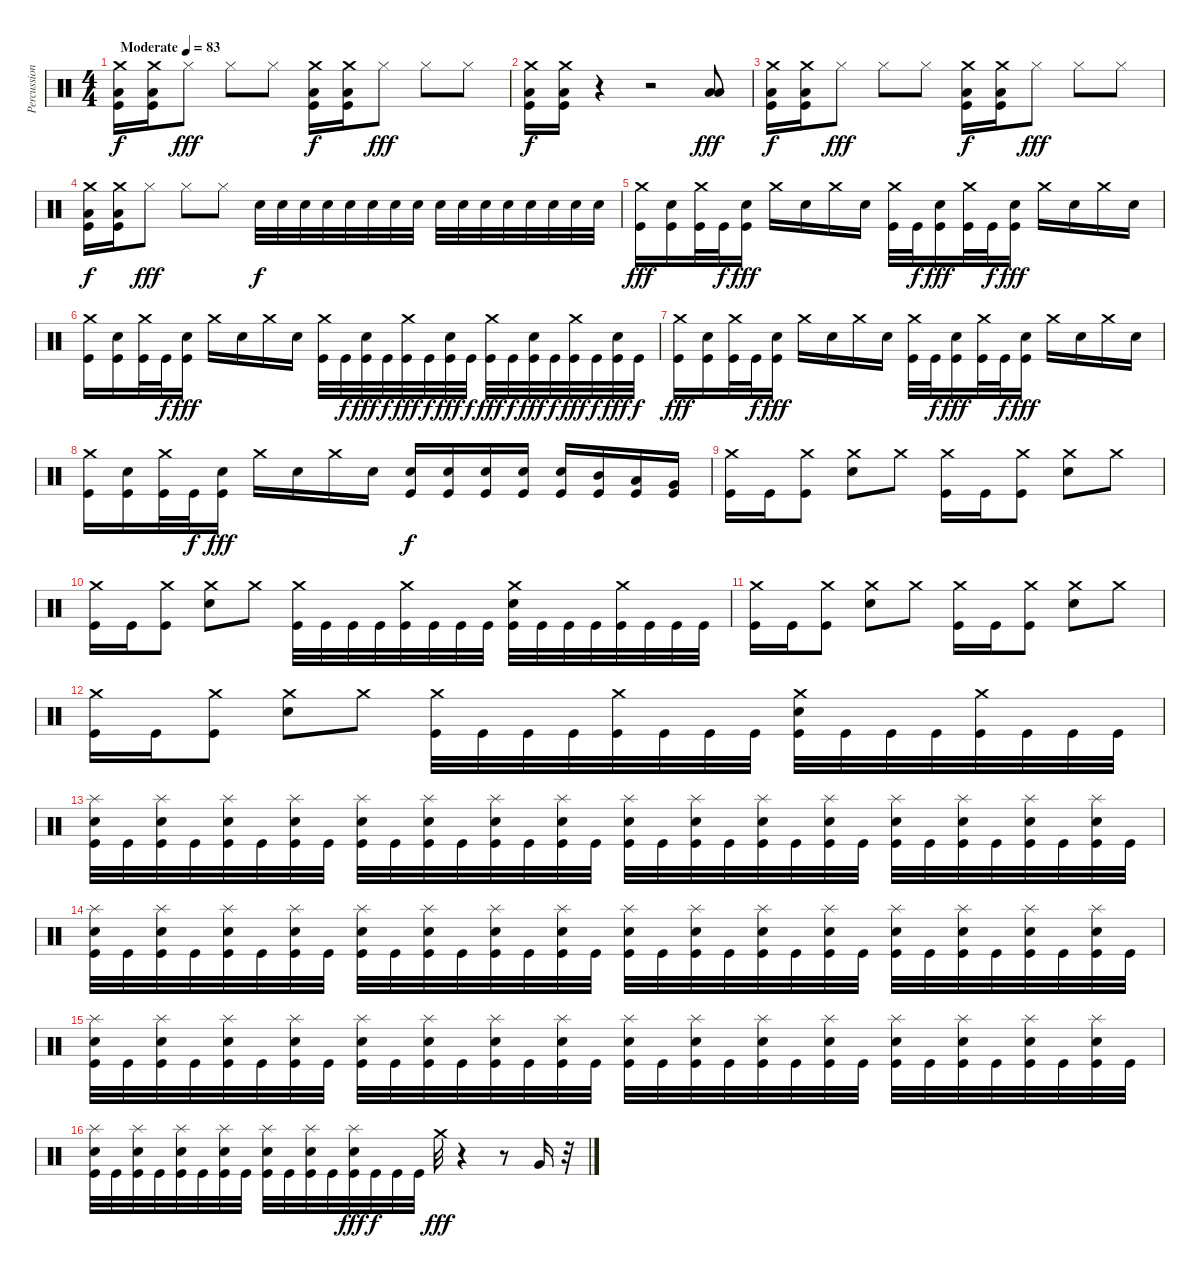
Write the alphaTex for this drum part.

\track ("Percussion" "Percussion") {instrument percussion}
\staff {score}
\articulation defaults
\ts (4 4)
\tempo (83 "Moderate")
\clef neutral
\ks c
("Crash medium (hit)" "Low Floor Tom (hit)" "Kick (hit)").16{dy f} ("Crash medium (hit)" "Low Floor Tom (hit)" "Kick (hit)").16 "Hi-Hat (closed)".8{dy fff} "Hi-Hat (closed)".8 "Hi-Hat (closed)".8 ("Crash medium (hit)" "Low Floor Tom (hit)" "Kick (hit)").16{dy f} ("Crash medium (hit)" "Low Floor Tom (hit)" "Kick (hit)").16 "Hi-Hat (closed)".8{dy fff} "Hi-Hat (closed)".8 "Hi-Hat (closed)".8 |
("Crash medium (hit)" "Low Floor Tom (hit)" "Kick (hit)").16{dy f} ("Crash medium (hit)" "Low Floor Tom (hit)" "Kick (hit)").16 r.4 r.2 ("Low Tom (hit)" "Low Tom (hit)").8{dy fff} |
("Crash medium (hit)" "Low Floor Tom (hit)" "Kick (hit)").16{dy f} ("Crash medium (hit)" "Low Floor Tom (hit)" "Kick (hit)").16 "Hi-Hat (closed)".8{dy fff} "Hi-Hat (closed)".8 "Hi-Hat (closed)".8 ("Crash medium (hit)" "Low Floor Tom (hit)" "Kick (hit)").16{dy f} ("Crash medium (hit)" "Low Floor Tom (hit)" "Kick (hit)").16 "Hi-Hat (closed)".8{dy fff} "Hi-Hat (closed)".8 "Hi-Hat (closed)".8 |
("Crash medium (hit)" "Low Floor Tom (hit)" "Kick (hit)").16{dy f} ("Crash medium (hit)" "Low Floor Tom (hit)" "Kick (hit)").16 "Hi-Hat (closed)".8{dy fff} "Hi-Hat (closed)".8 "Hi-Hat (closed)".8 "Snare (hit) 2".32{dy f} "Snare (hit) 2".32 "Snare (hit) 2".32 "Snare (hit) 2".32 "Snare (hit) 2".32 "Snare (hit) 2".32 "Snare (hit) 2".32 "Snare (hit) 2".32 "Snare (hit) 2".32 "Snare (hit) 2".32 "Snare (hit) 2".32 "Snare (hit) 2".32 "Snare (hit) 2".32 "Snare (hit) 2".32 "Snare (hit) 2".32 "Snare (hit) 2".32 |
("Crash medium (hit)" "Kick (hit)").16{dy fff} ("Snare (hit) 2" "Kick (hit)").16 ("Crash medium (hit)" "Kick (hit)").32 "Kick (hit)".32{dy f} ("Snare (hit) 2" "Kick (hit)").16{dy fff} "Crash medium (hit)".16 "Snare (hit) 2".16 "Crash medium (hit)".16 "Snare (hit) 2".16 ("Crash medium (hit)" "Kick (hit)").32 "Kick (hit)".32{dy f} ("Snare (hit) 2" "Kick (hit)").16{dy fff} ("Crash medium (hit)" "Kick (hit)").32 "Kick (hit)".32{dy f} ("Snare (hit) 2" "Kick (hit)").16{dy fff} "Crash medium (hit)".16 "Snare (hit) 2".16 "Crash medium (hit)".16 "Snare (hit) 2".16 |
("Crash medium (hit)" "Kick (hit)").16 ("Snare (hit) 2" "Kick (hit)").16 ("Crash medium (hit)" "Kick (hit)").32 "Kick (hit)".32{dy f} ("Snare (hit) 2" "Kick (hit)").16{dy fff} "Crash medium (hit)".16 "Snare (hit) 2".16 "Crash medium (hit)".16 "Snare (hit) 2".16 ("Crash medium (hit)" "Kick (hit)").32 "Kick (hit)".32{dy f} ("Snare (hit) 2" "Kick (hit)").32{dy fff} "Kick (hit)".32{dy f} ("Crash medium (hit)" "Kick (hit)").32{dy fff} "Kick (hit)".32{dy f} ("Snare (hit) 2" "Kick (hit)").32{dy fff} "Kick (hit)".32{dy f} ("Crash medium (hit)" "Kick (hit)").32{dy fff} "Kick (hit)".32{dy f} ("Snare (hit) 2" "Kick (hit)").32{dy fff} "Kick (hit)".32{dy f} ("Crash medium (hit)" "Kick (hit)").32{dy fff} "Kick (hit)".32{dy f} ("Snare (hit) 2" "Kick (hit)").32{dy fff} "Kick (hit)".32{dy f} |
("Crash medium (hit)" "Kick (hit)").16{dy fff} ("Snare (hit) 2" "Kick (hit)").16 ("Crash medium (hit)" "Kick (hit)").32 "Kick (hit)".32{dy f} ("Snare (hit) 2" "Kick (hit)").16{dy fff} "Crash medium (hit)".16 "Snare (hit) 2".16 "Crash medium (hit)".16 "Snare (hit) 2".16 ("Crash medium (hit)" "Kick (hit)").32 "Kick (hit)".32{dy f} ("Snare (hit) 2" "Kick (hit)").16{dy fff} ("Crash medium (hit)" "Kick (hit)").32 "Kick (hit)".32{dy f} ("Snare (hit) 2" "Kick (hit)").16{dy fff} "Crash medium (hit)".16 "Snare (hit) 2".16 "Crash medium (hit)".16 "Snare (hit) 2".16 |
("Crash medium (hit)" "Kick (hit)").16 ("Snare (hit) 2" "Kick (hit)").16 ("Crash medium (hit)" "Kick (hit)").32 "Kick (hit)".32{dy f} ("Snare (hit) 2" "Kick (hit)").16{dy fff} "Crash medium (hit)".16 "Snare (hit) 2".16 "Crash medium (hit)".16 "Snare (hit) 2".16 ("Snare (hit) 2" "Kick (hit)").16{dy f} ("Snare (hit) 2" "Kick (hit)").16 ("Snare (hit) 2" "Kick (hit)").16 ("Snare (hit) 2" "Kick (hit)").16 ("Snare (hit) 2" "Kick (hit)").16 ("Mid Tom (hit)" "Kick (hit)").16 ("Low Tom (hit)" "Kick (hit)").16 ("Very Low Tom (hit)" "Kick (hit)").16 |
("Crash medium (hit)" "Kick (hit)").16 "Kick (hit)".16 ("Crash medium (hit)" "Kick (hit)").8 ("Crash medium (hit)" "Snare (hit) 2").8 "Crash medium (hit)".8 ("Crash medium (hit)" "Kick (hit)").16 "Kick (hit)".16 ("Crash medium (hit)" "Kick (hit)").8 ("Crash medium (hit)" "Snare (hit) 2").8 "Crash medium (hit)".8 |
("Crash medium (hit)" "Kick (hit)").16 "Kick (hit)".16 ("Crash medium (hit)" "Kick (hit)").8 ("Crash medium (hit)" "Snare (hit) 2").8 "Crash medium (hit)".8 ("Crash medium (hit)" "Kick (hit)").32 "Kick (hit)".32 "Kick (hit)".32 "Kick (hit)".32 ("Crash medium (hit)" "Kick (hit)").32 "Kick (hit)".32 "Kick (hit)".32 "Kick (hit)".32 ("Crash medium (hit)" "Snare (hit) 2" "Kick (hit)").32 "Kick (hit)".32 "Kick (hit)".32 "Kick (hit)".32 ("Crash medium (hit)" "Kick (hit)").32 "Kick (hit)".32 "Kick (hit)".32 "Kick (hit)".32 |
("Crash medium (hit)" "Kick (hit)").16 "Kick (hit)".16 ("Crash medium (hit)" "Kick (hit)").8 ("Crash medium (hit)" "Snare (hit) 2").8 "Crash medium (hit)".8 ("Crash medium (hit)" "Kick (hit)").16 "Kick (hit)".16 ("Crash medium (hit)" "Kick (hit)").8 ("Crash medium (hit)" "Snare (hit) 2").8 "Crash medium (hit)".8 |
("Crash medium (hit)" "Kick (hit)").16 "Kick (hit)".16 ("Crash medium (hit)" "Kick (hit)").8 ("Crash medium (hit)" "Snare (hit) 2").8 "Crash medium (hit)".8 ("Crash medium (hit)" "Kick (hit)").32 "Kick (hit)".32 "Kick (hit)".32 "Kick (hit)".32 ("Crash medium (hit)" "Kick (hit)").32 "Kick (hit)".32 "Kick (hit)".32 "Kick (hit)".32 ("Crash medium (hit)" "Snare (hit) 2" "Kick (hit)").32 "Kick (hit)".32 "Kick (hit)".32 "Kick (hit)".32 ("Crash medium (hit)" "Kick (hit)").32 "Kick (hit)".32 "Kick (hit)".32 "Kick (hit)".32 |
("Splash (hit)" "Snare (hit) 2" "Kick (hit)").32 "Kick (hit)".32 ("Splash (hit)" "Snare (hit) 2" "Kick (hit)").32 "Kick (hit)".32 ("Splash (hit)" "Snare (hit) 2" "Kick (hit)").32 "Kick (hit)".32 ("Splash (hit)" "Snare (hit) 2" "Kick (hit)").32 "Kick (hit)".32 ("Splash (hit)" "Snare (hit) 2" "Kick (hit)").32 "Kick (hit)".32 ("Splash (hit)" "Snare (hit) 2" "Kick (hit)").32 "Kick (hit)".32 ("Splash (hit)" "Snare (hit) 2" "Kick (hit)").32 "Kick (hit)".32 ("Splash (hit)" "Snare (hit) 2" "Kick (hit)").32 "Kick (hit)".32 ("Splash (hit)" "Snare (hit) 2" "Kick (hit)").32 "Kick (hit)".32 ("Splash (hit)" "Snare (hit) 2" "Kick (hit)").32 "Kick (hit)".32 ("Splash (hit)" "Snare (hit) 2" "Kick (hit)").32 "Kick (hit)".32 ("Splash (hit)" "Snare (hit) 2" "Kick (hit)").32 "Kick (hit)".32 ("Splash (hit)" "Snare (hit) 2" "Kick (hit)").32 "Kick (hit)".32 ("Splash (hit)" "Snare (hit) 2" "Kick (hit)").32 "Kick (hit)".32 ("Splash (hit)" "Snare (hit) 2" "Kick (hit)").32 "Kick (hit)".32 ("Splash (hit)" "Snare (hit) 2" "Kick (hit)").32 "Kick (hit)".32 |
("Splash (hit)" "Snare (hit) 2" "Kick (hit)").32 "Kick (hit)".32 ("Splash (hit)" "Snare (hit) 2" "Kick (hit)").32 "Kick (hit)".32 ("Splash (hit)" "Snare (hit) 2" "Kick (hit)").32 "Kick (hit)".32 ("Splash (hit)" "Snare (hit) 2" "Kick (hit)").32 "Kick (hit)".32 ("Splash (hit)" "Snare (hit) 2" "Kick (hit)").32 "Kick (hit)".32 ("Splash (hit)" "Snare (hit) 2" "Kick (hit)").32 "Kick (hit)".32 ("Splash (hit)" "Snare (hit) 2" "Kick (hit)").32 "Kick (hit)".32 ("Splash (hit)" "Snare (hit) 2" "Kick (hit)").32 "Kick (hit)".32 ("Splash (hit)" "Snare (hit) 2" "Kick (hit)").32 "Kick (hit)".32 ("Splash (hit)" "Snare (hit) 2" "Kick (hit)").32 "Kick (hit)".32 ("Splash (hit)" "Snare (hit) 2" "Kick (hit)").32 "Kick (hit)".32 ("Splash (hit)" "Snare (hit) 2" "Kick (hit)").32 "Kick (hit)".32 ("Splash (hit)" "Snare (hit) 2" "Kick (hit)").32 "Kick (hit)".32 ("Splash (hit)" "Snare (hit) 2" "Kick (hit)").32 "Kick (hit)".32 ("Splash (hit)" "Snare (hit) 2" "Kick (hit)").32 "Kick (hit)".32 ("Splash (hit)" "Snare (hit) 2" "Kick (hit)").32 "Kick (hit)".32 |
("Splash (hit)" "Snare (hit) 2" "Kick (hit)").32 "Kick (hit)".32 ("Splash (hit)" "Snare (hit) 2" "Kick (hit)").32 "Kick (hit)".32 ("Splash (hit)" "Snare (hit) 2" "Kick (hit)").32 "Kick (hit)".32 ("Splash (hit)" "Snare (hit) 2" "Kick (hit)").32 "Kick (hit)".32 ("Splash (hit)" "Snare (hit) 2" "Kick (hit)").32 "Kick (hit)".32 ("Splash (hit)" "Snare (hit) 2" "Kick (hit)").32 "Kick (hit)".32 ("Splash (hit)" "Snare (hit) 2" "Kick (hit)").32 "Kick (hit)".32 ("Splash (hit)" "Snare (hit) 2" "Kick (hit)").32 "Kick (hit)".32 ("Splash (hit)" "Snare (hit) 2" "Kick (hit)").32 "Kick (hit)".32 ("Splash (hit)" "Snare (hit) 2" "Kick (hit)").32 "Kick (hit)".32 ("Splash (hit)" "Snare (hit) 2" "Kick (hit)").32 "Kick (hit)".32 ("Splash (hit)" "Snare (hit) 2" "Kick (hit)").32 "Kick (hit)".32 ("Splash (hit)" "Snare (hit) 2" "Kick (hit)").32 "Kick (hit)".32 ("Splash (hit)" "Snare (hit) 2" "Kick (hit)").32 "Kick (hit)".32 ("Splash (hit)" "Snare (hit) 2" "Kick (hit)").32 "Kick (hit)".32 ("Splash (hit)" "Snare (hit) 2" "Kick (hit)").32 "Kick (hit)".32 |
("Splash (hit)" "Snare (hit) 2" "Kick (hit)").32 "Kick (hit)".32 ("Splash (hit)" "Snare (hit) 2" "Kick (hit)").32 "Kick (hit)".32 ("Splash (hit)" "Snare (hit) 2" "Kick (hit)").32 "Kick (hit)".32 ("Splash (hit)" "Snare (hit) 2" "Kick (hit)").32 "Kick (hit)".32 ("Splash (hit)" "Snare (hit) 2" "Kick (hit)").32 "Kick (hit)".32 ("Splash (hit)" "Snare (hit) 2" "Kick (hit)").32 "Kick (hit)".32 ("Splash (hit)" "Snare (hit) 2" "Kick (hit)").32{dy fff} "Kick (hit)".32{dy f} "Kick (hit)".32 "Kick (hit)".32 "Crash medium (hit)".32{dy fff} r.4 r.8 "Very Low Tom (hit)".16 r.32
